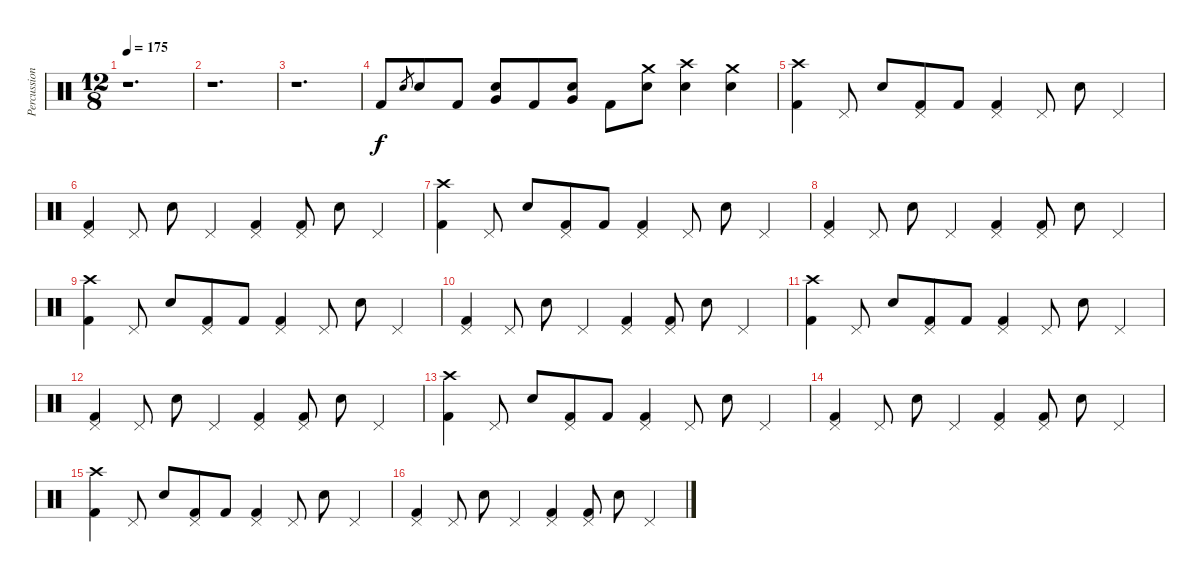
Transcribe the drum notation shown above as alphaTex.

\track ("Percussion" "Percussion") {instrument percussion}
\staff {score}
\articulation defaults
\ts (12 8)
\tempo 175
\clef neutral
\ks c
r.1{d dy f} |
r.1{d} |
r.1{d} |
"Kick (hit) 2".8 "Snare (hit) 2".8{gr} "Snare (hit) 2".8 "Kick (hit) 2".8 ("Snare (hit) 2" "Very Low Tom (hit)").8 "Kick (hit) 2".8 ("Snare (hit) 2" "Very Low Tom (hit)").8 "Kick (hit) 2".8 ("Snare (hit) 2" "Crash medium (hit)").8 ("Snare (hit) 2" "Crash high (hit)").4 ("Snare (hit) 2" "Crash medium (hit)").4 |
("Kick (hit) 2" "Crash high (hit)").4 "Pedal Hi-Hat (hit)".8 "Snare (hit) 2".8 ("Kick (hit) 2" "Pedal Hi-Hat (hit)").8 "Kick (hit) 2".8 ("Kick (hit) 2" "Pedal Hi-Hat (hit)").4 "Pedal Hi-Hat (hit)".8 "Snare (hit) 2".8 "Pedal Hi-Hat (hit)".4 |
("Kick (hit) 2" "Pedal Hi-Hat (hit)").4 "Pedal Hi-Hat (hit)".8 "Snare (hit) 2".8 "Pedal Hi-Hat (hit)".4 ("Kick (hit) 2" "Pedal Hi-Hat (hit)").4 ("Kick (hit) 2" "Pedal Hi-Hat (hit)").8 "Snare (hit) 2".8 "Pedal Hi-Hat (hit)".4 |
("Kick (hit) 2" "Crash high (hit)").4 "Pedal Hi-Hat (hit)".8 "Snare (hit) 2".8 ("Kick (hit) 2" "Pedal Hi-Hat (hit)").8 "Kick (hit) 2".8 ("Kick (hit) 2" "Pedal Hi-Hat (hit)").4 "Pedal Hi-Hat (hit)".8 "Snare (hit) 2".8 "Pedal Hi-Hat (hit)".4 |
("Kick (hit) 2" "Pedal Hi-Hat (hit)").4 "Pedal Hi-Hat (hit)".8 "Snare (hit) 2".8 "Pedal Hi-Hat (hit)".4 ("Kick (hit) 2" "Pedal Hi-Hat (hit)").4 ("Kick (hit) 2" "Pedal Hi-Hat (hit)").8 "Snare (hit) 2".8 "Pedal Hi-Hat (hit)".4 |
("Kick (hit) 2" "Crash high (hit)").4 "Pedal Hi-Hat (hit)".8 "Snare (hit) 2".8 ("Kick (hit) 2" "Pedal Hi-Hat (hit)").8 "Kick (hit) 2".8 ("Kick (hit) 2" "Pedal Hi-Hat (hit)").4 "Pedal Hi-Hat (hit)".8 "Snare (hit) 2".8 "Pedal Hi-Hat (hit)".4 |
("Kick (hit) 2" "Pedal Hi-Hat (hit)").4 "Pedal Hi-Hat (hit)".8 "Snare (hit) 2".8 "Pedal Hi-Hat (hit)".4 ("Kick (hit) 2" "Pedal Hi-Hat (hit)").4 ("Kick (hit) 2" "Pedal Hi-Hat (hit)").8 "Snare (hit) 2".8 "Pedal Hi-Hat (hit)".4 |
("Kick (hit) 2" "Crash high (hit)").4 "Pedal Hi-Hat (hit)".8 "Snare (hit) 2".8 ("Kick (hit) 2" "Pedal Hi-Hat (hit)").8 "Kick (hit) 2".8 ("Kick (hit) 2" "Pedal Hi-Hat (hit)").4 "Pedal Hi-Hat (hit)".8 "Snare (hit) 2".8 "Pedal Hi-Hat (hit)".4 |
("Kick (hit) 2" "Pedal Hi-Hat (hit)").4 "Pedal Hi-Hat (hit)".8 "Snare (hit) 2".8 "Pedal Hi-Hat (hit)".4 ("Kick (hit) 2" "Pedal Hi-Hat (hit)").4 ("Kick (hit) 2" "Pedal Hi-Hat (hit)").8 "Snare (hit) 2".8 "Pedal Hi-Hat (hit)".4 |
("Kick (hit) 2" "Crash high (hit)").4 "Pedal Hi-Hat (hit)".8 "Snare (hit) 2".8 ("Kick (hit) 2" "Pedal Hi-Hat (hit)").8 "Kick (hit) 2".8 ("Kick (hit) 2" "Pedal Hi-Hat (hit)").4 "Pedal Hi-Hat (hit)".8 "Snare (hit) 2".8 "Pedal Hi-Hat (hit)".4 |
("Kick (hit) 2" "Pedal Hi-Hat (hit)").4 "Pedal Hi-Hat (hit)".8 "Snare (hit) 2".8 "Pedal Hi-Hat (hit)".4 ("Kick (hit) 2" "Pedal Hi-Hat (hit)").4 ("Kick (hit) 2" "Pedal Hi-Hat (hit)").8 "Snare (hit) 2".8 "Pedal Hi-Hat (hit)".4 |
("Kick (hit) 2" "Crash high (hit)").4 "Pedal Hi-Hat (hit)".8 "Snare (hit) 2".8 ("Kick (hit) 2" "Pedal Hi-Hat (hit)").8 "Kick (hit) 2".8 ("Kick (hit) 2" "Pedal Hi-Hat (hit)").4 "Pedal Hi-Hat (hit)".8 "Snare (hit) 2".8 "Pedal Hi-Hat (hit)".4 |
("Kick (hit) 2" "Pedal Hi-Hat (hit)").4 "Pedal Hi-Hat (hit)".8 "Snare (hit) 2".8 "Pedal Hi-Hat (hit)".4 ("Kick (hit) 2" "Pedal Hi-Hat (hit)").4 ("Kick (hit) 2" "Pedal Hi-Hat (hit)").8 "Snare (hit) 2".8 "Pedal Hi-Hat (hit)".4
